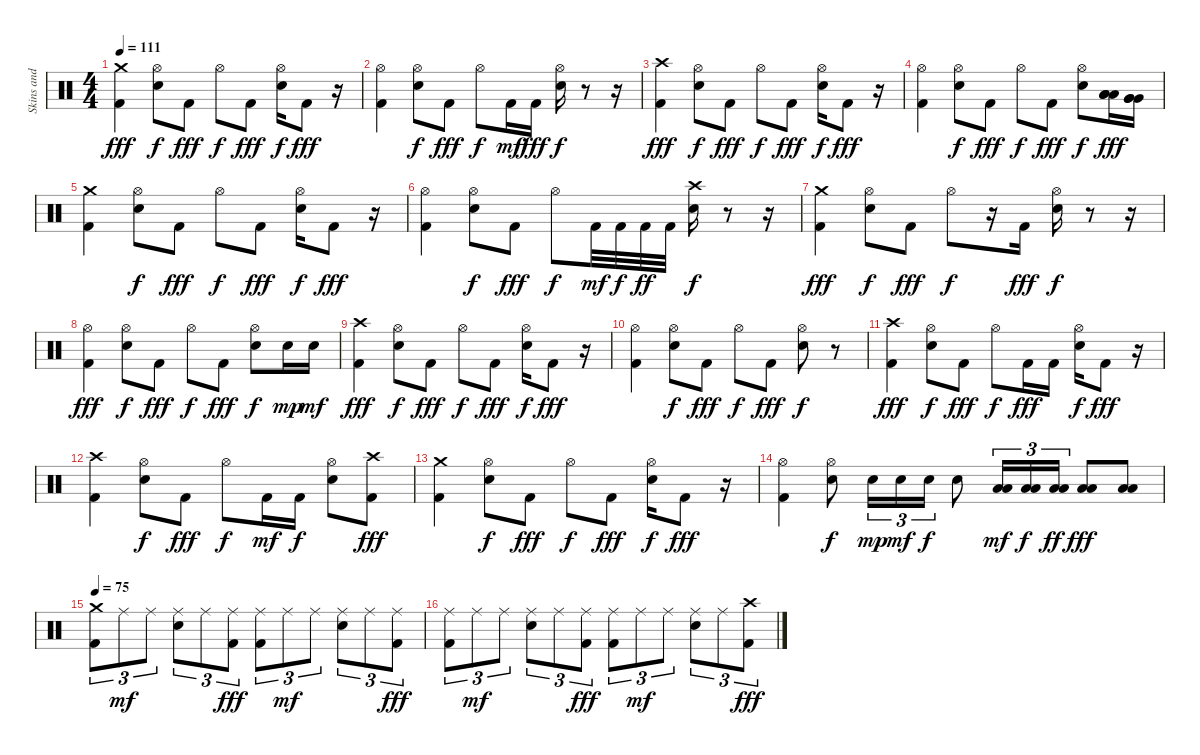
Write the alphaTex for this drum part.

\track ("Skins and Cymbals" "Skins and ") {instrument percussion}
\staff {score}
\articulation defaults
\ts (4 4)
\tempo 111
\clef neutral
\ks c
("Crash medium (hit)" "Kick (hit) 2").4{dy fff} ("Hi-Hat (open)" "Electric Snare (hit)").8{dy f} "Kick (hit) 2".8{dy fff} "Hi-Hat (open)".8{dy f} "Kick (hit) 2".8{dy fff} ("Hi-Hat (open)" "Electric Snare (hit)").16{dy f} "Kick (hit) 2".8{dy fff} r.16 |
("Hi-Hat (open)" "Kick (hit) 2").4 ("Hi-Hat (open)" "Electric Snare (hit)").8{dy f} "Kick (hit) 2".8{dy fff} "Hi-Hat (open)".8{dy f} "Kick (hit) 2".16{dy mf} "Kick (hit) 2".16{dy fff} ("Hi-Hat (open)" "Electric Snare (hit)").16{dy f} r.8 r.16 |
("Crash high (hit)" "Kick (hit) 2").4{dy fff} ("Hi-Hat (open)" "Electric Snare (hit)").8{dy f} "Kick (hit) 2".8{dy fff} "Hi-Hat (open)".8{dy f} "Kick (hit) 2".8{dy fff} ("Hi-Hat (open)" "Electric Snare (hit)").16{dy f} "Kick (hit) 2".8{dy fff} r.16 |
("Hi-Hat (open)" "Kick (hit) 2").4 ("Hi-Hat (open)" "Electric Snare (hit)").8{dy f} "Kick (hit) 2".8{dy fff} "Hi-Hat (open)".8{dy f} "Kick (hit) 2".8{dy fff} ("Hi-Hat (open)" "Electric Snare (hit)").8{dy f} ("Low Tom (hit)" "Low Tom (hit)" "Low Tom (hit)").16{dy fff} ("Very Low Tom (hit)" "Very Low Tom (hit)" "Very Low Tom (hit)").16 |
("Crash medium (hit)" "Kick (hit) 2").4 ("Hi-Hat (open)" "Electric Snare (hit)").8{dy f} "Kick (hit) 2".8{dy fff} "Hi-Hat (open)".8{dy f} "Kick (hit) 2".8{dy fff} ("Hi-Hat (open)" "Electric Snare (hit)").16{dy f} "Kick (hit) 2".8{dy fff} r.16 |
("Hi-Hat (open)" "Kick (hit) 2").4 ("Hi-Hat (open)" "Electric Snare (hit)").8{dy f} "Kick (hit) 2".8{dy fff} "Hi-Hat (open)".8{dy f} "Kick (hit) 2".32{dy mf} "Kick (hit) 2".32{dy f} "Kick (hit) 2".32{dy ff} "Kick (hit) 2".32 ("Crash high (hit)" "Electric Snare (hit)").16{dy f} r.8 r.16 |
("Crash medium (hit)" "Kick (hit) 2").4{dy fff} ("Hi-Hat (open)" "Electric Snare (hit)").8{dy f} "Kick (hit) 2".8{dy fff} "Hi-Hat (open)".8{dy f} r.16 "Kick (hit) 2".16{dy fff} ("Hi-Hat (open)" "Electric Snare (hit)").16{dy f} r.8 r.16 |
("Hi-Hat (open)" "Kick (hit) 2").4{dy fff} ("Hi-Hat (open)" "Electric Snare (hit)").8{dy f} "Kick (hit) 2".8{dy fff} "Hi-Hat (open)".8{dy f} "Kick (hit) 2".8{dy fff} ("Hi-Hat (open)" "Electric Snare (hit)").8{dy f} "Electric Snare (hit)".16{dy mp} "Electric Snare (hit)".16{dy mf} |
("Crash high (hit)" "Kick (hit) 2").4{dy fff} ("Hi-Hat (open)" "Electric Snare (hit)").8{dy f} "Kick (hit) 2".8{dy fff} "Hi-Hat (open)".8{dy f} "Kick (hit) 2".8{dy fff} ("Hi-Hat (open)" "Electric Snare (hit)").16{dy f} "Kick (hit) 2".8{dy fff} r.16 |
("Hi-Hat (open)" "Kick (hit) 2").4 ("Hi-Hat (open)" "Electric Snare (hit)").8{dy f} "Kick (hit) 2".8{dy fff} "Hi-Hat (open)".8{dy f} "Kick (hit) 2".8{dy fff} ("Hi-Hat (open)" "Electric Snare (hit)").8{dy f} r.8 |
("Crash high (hit)" "Kick (hit) 2").4{dy fff} ("Hi-Hat (open)" "Electric Snare (hit)").8{dy f} "Kick (hit) 2".8{dy fff} "Hi-Hat (open)".8{dy f} "Kick (hit) 2".16{dy fff} "Kick (hit) 2".16 ("Hi-Hat (open)" "Electric Snare (hit)").16{dy f} "Kick (hit) 2".8{dy fff} r.16 |
("Crash high (hit)" "Kick (hit) 2").4 ("Hi-Hat (open)" "Electric Snare (hit)").8{dy f} "Kick (hit) 2".8{dy fff} "Hi-Hat (open)".8{dy f} "Kick (hit) 2".16{dy mf} "Kick (hit) 2".16{dy f} ("Hi-Hat (open)" "Electric Snare (hit)").8 ("Crash high (hit)" "Kick (hit) 2").8{dy fff} |
("Crash medium (hit)" "Kick (hit) 2").4 ("Hi-Hat (open)" "Electric Snare (hit)").8{dy f} "Kick (hit) 2".8{dy fff} "Hi-Hat (open)".8{dy f} "Kick (hit) 2".8{dy fff} ("Hi-Hat (open)" "Electric Snare (hit)").16{dy f} "Kick (hit) 2".8{dy fff} r.16 |
("Hi-Hat (open)" "Kick (hit) 2").4 ("Hi-Hat (open)" "Electric Snare (hit)").8{dy f} "Electric Snare (hit)".16{tu (3 2) dy mp} "Electric Snare (hit)".16{tu (3 2) dy mf} "Electric Snare (hit)".16{tu (3 2) dy f} "Electric Snare (hit)".8 ("Low Tom (hit)" "Low Tom (hit)").16{tu (3 2) dy mf} ("Low Tom (hit)" "Low Tom (hit)").16{tu (3 2) dy f} ("Low Tom (hit)" "Low Tom (hit)").16{tu (3 2) dy ff} ("Low Tom (hit)" "Low Tom (hit)").8{dy fff} ("Low Floor Tom (hit)" "Low Floor Tom (hit)").8 |
\tempo 75
("Crash medium (hit)" "Kick (hit) 2").8{tu (3 2)} "Ride (middle)".8{tu (3 2) dy mf} "Ride (middle)".8{tu (3 2)} ("Ride (middle)" "Electric Snare (hit)").8{tu (3 2)} "Ride (middle)".8{tu (3 2)} ("Ride (middle)" "Kick (hit) 2").8{tu (3 2) dy fff} ("Ride (middle)" "Kick (hit) 2").8{tu (3 2)} "Ride (middle)".8{tu (3 2) dy mf} "Ride (middle)".8{tu (3 2)} ("Ride (middle)" "Electric Snare (hit)").8{tu (3 2)} "Ride (middle)".8{tu (3 2)} ("Ride (middle)" "Kick (hit) 2").8{tu (3 2) dy fff} |
("Ride (middle)" "Kick (hit) 2").8{tu (3 2)} "Ride (middle)".8{tu (3 2) dy mf} "Ride (middle)".8{tu (3 2)} ("Ride (middle)" "Electric Snare (hit)").8{tu (3 2)} "Ride (middle)".8{tu (3 2)} ("Ride (middle)" "Kick (hit) 2").8{tu (3 2) dy fff} ("Ride (middle)" "Kick (hit) 2").8{tu (3 2)} "Ride (middle)".8{tu (3 2) dy mf} "Ride (middle)".8{tu (3 2)} ("Ride (middle)" "Electric Snare (hit)").8{tu (3 2)} "Ride (middle)".8{tu (3 2)} ("Crash high (hit)" "Kick (hit) 2").8{tu (3 2) dy fff}
